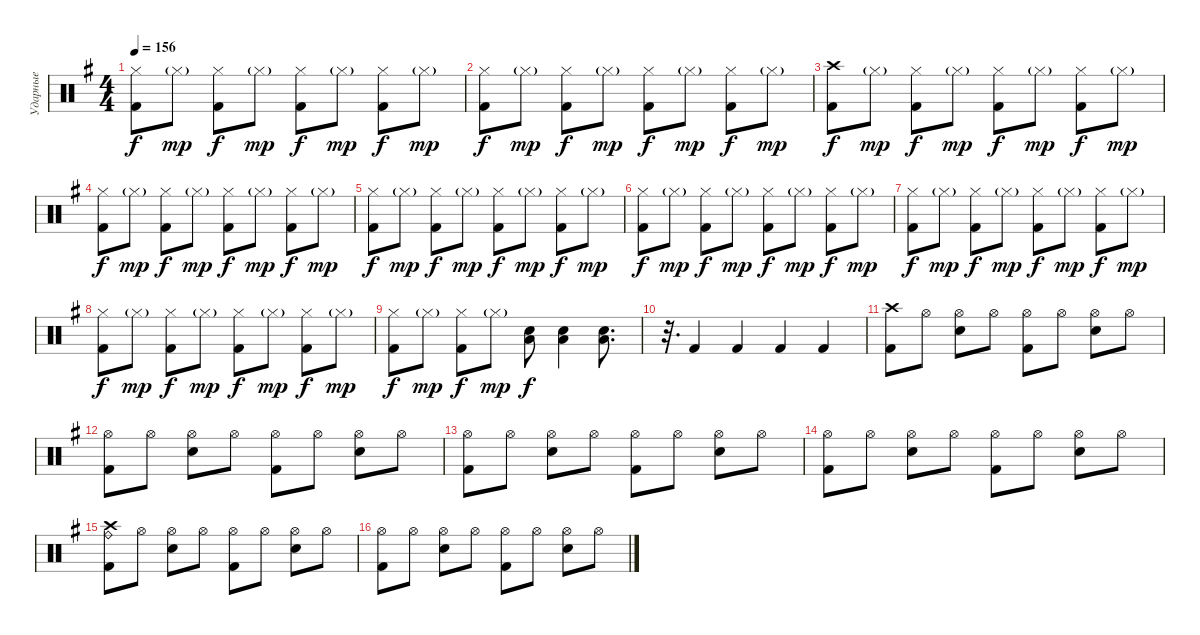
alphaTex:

\track ("Ударные" "Ударные") {instrument percussion}
\staff {score}
\articulation defaults
\ts (4 4)
\tempo 156
\clef neutral
\ks g
("Kick (hit) 2" "Hi-Hat (closed)").8{dy f} "Hi-Hat (closed)"{g}.8{dy mp} ("Kick (hit) 2" "Hi-Hat (closed)").8{dy f} "Hi-Hat (closed)"{g}.8{dy mp} ("Kick (hit) 2" "Hi-Hat (closed)").8{dy f} "Hi-Hat (closed)"{g}.8{dy mp} ("Kick (hit) 2" "Hi-Hat (closed)").8{dy f} "Hi-Hat (closed)"{g}.8{dy mp} |
("Kick (hit) 2" "Hi-Hat (closed)").8{dy f} "Hi-Hat (closed)"{g}.8{dy mp} ("Kick (hit) 2" "Hi-Hat (closed)").8{dy f} "Hi-Hat (closed)"{g}.8{dy mp} ("Kick (hit) 2" "Hi-Hat (closed)").8{dy f} "Hi-Hat (closed)"{g}.8{dy mp} ("Kick (hit) 2" "Hi-Hat (closed)").8{dy f} "Hi-Hat (closed)"{g}.8{dy mp} |
("Kick (hit) 2" "Crash high (hit)").8{dy f} "Hi-Hat (closed)"{g}.8{dy mp} ("Kick (hit) 2" "Hi-Hat (closed)").8{dy f} "Hi-Hat (closed)"{g}.8{dy mp} ("Kick (hit) 2" "Hi-Hat (closed)").8{dy f} "Hi-Hat (closed)"{g}.8{dy mp} ("Kick (hit) 2" "Hi-Hat (closed)").8{dy f} "Hi-Hat (closed)"{g}.8{dy mp} |
("Kick (hit) 2" "Hi-Hat (closed)").8{dy f} "Hi-Hat (closed)"{g}.8{dy mp} ("Kick (hit) 2" "Hi-Hat (closed)").8{dy f} "Hi-Hat (closed)"{g}.8{dy mp} ("Kick (hit) 2" "Hi-Hat (closed)").8{dy f} "Hi-Hat (closed)"{g}.8{dy mp} ("Kick (hit) 2" "Hi-Hat (closed)").8{dy f} "Hi-Hat (closed)"{g}.8{dy mp} |
("Kick (hit) 2" "Hi-Hat (closed)").8{dy f} "Hi-Hat (closed)"{g}.8{dy mp} ("Kick (hit) 2" "Hi-Hat (closed)").8{dy f} "Hi-Hat (closed)"{g}.8{dy mp} ("Kick (hit) 2" "Hi-Hat (closed)").8{dy f} "Hi-Hat (closed)"{g}.8{dy mp} ("Kick (hit) 2" "Hi-Hat (closed)").8{dy f} "Hi-Hat (closed)"{g}.8{dy mp} |
("Kick (hit) 2" "Hi-Hat (closed)").8{dy f} "Hi-Hat (closed)"{g}.8{dy mp} ("Kick (hit) 2" "Hi-Hat (closed)").8{dy f} "Hi-Hat (closed)"{g}.8{dy mp} ("Kick (hit) 2" "Hi-Hat (closed)").8{dy f} "Hi-Hat (closed)"{g}.8{dy mp} ("Kick (hit) 2" "Hi-Hat (closed)").8{dy f} "Hi-Hat (closed)"{g}.8{dy mp} |
("Kick (hit) 2" "Hi-Hat (closed)").8{dy f} "Hi-Hat (closed)"{g}.8{dy mp} ("Kick (hit) 2" "Hi-Hat (closed)").8{dy f} "Hi-Hat (closed)"{g}.8{dy mp} ("Kick (hit) 2" "Hi-Hat (closed)").8{dy f} "Hi-Hat (closed)"{g}.8{dy mp} ("Kick (hit) 2" "Hi-Hat (closed)").8{dy f} "Hi-Hat (closed)"{g}.8{dy mp} |
("Kick (hit) 2" "Hi-Hat (closed)").8{dy f} "Hi-Hat (closed)"{g}.8{dy mp} ("Kick (hit) 2" "Hi-Hat (closed)").8{dy f} "Hi-Hat (closed)"{g}.8{dy mp} ("Kick (hit) 2" "Hi-Hat (closed)").8{dy f} "Hi-Hat (closed)"{g}.8{dy mp} ("Kick (hit) 2" "Hi-Hat (closed)").8{dy f} "Hi-Hat (closed)"{g}.8{dy mp} |
("Kick (hit) 2" "Hi-Hat (closed)").8{dy f} "Hi-Hat (closed)"{g}.8{dy mp} ("Kick (hit) 2" "Hi-Hat (closed)").8{dy f} "Hi-Hat (closed)"{g}.8{dy mp} ("Electric Snare (hit)" "Low Tom (hit)").8{dy f} ("Electric Snare (hit)" "Low Tom (hit)").4 ("Electric Snare (hit)" "Low Tom (hit)").8{d} |
r.32{d} "Kick (hit) 2".4 "Kick (hit) 2".4 "Kick (hit) 2".4 "Kick (hit) 2".4 |
("Crash high (hit)" "Kick (hit) 2").8 "Hi-Hat (open)".8 ("Hi-Hat (open)" "Electric Snare (hit)").8 "Hi-Hat (open)".8 ("Hi-Hat (open)" "Kick (hit) 2").8 "Hi-Hat (open)".8 ("Hi-Hat (open)" "Electric Snare (hit)").8 "Hi-Hat (open)".8 |
("Hi-Hat (open)" "Kick (hit) 2").8 "Hi-Hat (open)".8 ("Hi-Hat (open)" "Electric Snare (hit)").8 "Hi-Hat (open)".8 ("Hi-Hat (open)" "Kick (hit) 2").8 "Hi-Hat (open)".8 ("Hi-Hat (open)" "Electric Snare (hit)").8 "Hi-Hat (open)".8 |
("Hi-Hat (open)" "Kick (hit) 2").8 "Hi-Hat (open)".8 ("Hi-Hat (open)" "Electric Snare (hit)").8 "Hi-Hat (open)".8 ("Hi-Hat (open)" "Kick (hit) 2").8 "Hi-Hat (open)".8 ("Hi-Hat (open)" "Electric Snare (hit)").8 "Hi-Hat (open)".8 |
("Hi-Hat (open)" "Kick (hit) 2").8 "Hi-Hat (open)".8 ("Hi-Hat (open)" "Electric Snare (hit)").8 "Hi-Hat (open)".8 ("Hi-Hat (open)" "Kick (hit) 2").8 "Hi-Hat (open)".8 ("Hi-Hat (open)" "Electric Snare (hit)").8 "Hi-Hat (open)".8 |
("Crash high (hit)" "Kick (hit) 2" "Ride (bell)").8 "Hi-Hat (open)".8 ("Hi-Hat (open)" "Electric Snare (hit)").8 "Hi-Hat (open)".8 ("Hi-Hat (open)" "Kick (hit) 2").8 "Hi-Hat (open)".8 ("Hi-Hat (open)" "Electric Snare (hit)").8 "Hi-Hat (open)".8 |
("Hi-Hat (open)" "Kick (hit) 2").8 "Hi-Hat (open)".8 ("Hi-Hat (open)" "Electric Snare (hit)").8 "Hi-Hat (open)".8 ("Hi-Hat (open)" "Kick (hit) 2").8 "Hi-Hat (open)".8 ("Hi-Hat (open)" "Electric Snare (hit)").8 "Hi-Hat (open)".8
